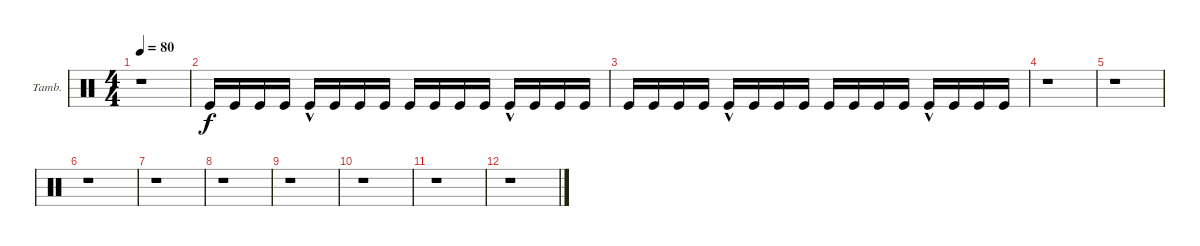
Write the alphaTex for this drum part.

\bracketExtendMode groupsimilarinstruments
\firstSystemTrackNameOrientation horizontal
\otherSystemsTrackNameOrientation horizontal
\track ("Tambourine" "Tamb.") {instrument percussion}
\staff {score}
\articulation defaults
\ts (4 4)
\tempo 80
\clef neutral
\ks c
r.1{dy f} |
"Kick (hit)".16 "Kick (hit)".16 "Kick (hit)".16 "Kick (hit)".16 "Kick (hit)"{hac}.16 "Kick (hit)".16 "Kick (hit)".16 "Kick (hit)".16 "Kick (hit)".16 "Kick (hit)".16 "Kick (hit)".16 "Kick (hit)".16 "Kick (hit)"{hac}.16 "Kick (hit)".16 "Kick (hit)".16 "Kick (hit)".16 |
"Kick (hit)".16 "Kick (hit)".16 "Kick (hit)".16 "Kick (hit)".16 "Kick (hit)"{hac}.16 "Kick (hit)".16 "Kick (hit)".16 "Kick (hit)".16 "Kick (hit)".16 "Kick (hit)".16 "Kick (hit)".16 "Kick (hit)".16 "Kick (hit)"{hac}.16 "Kick (hit)".16 "Kick (hit)".16 "Kick (hit)".16 |
r.1 |
r.1 |
r.1 |
r.1 |
r.1 |
r.1 |
r.1 |
r.1 |
r.1
